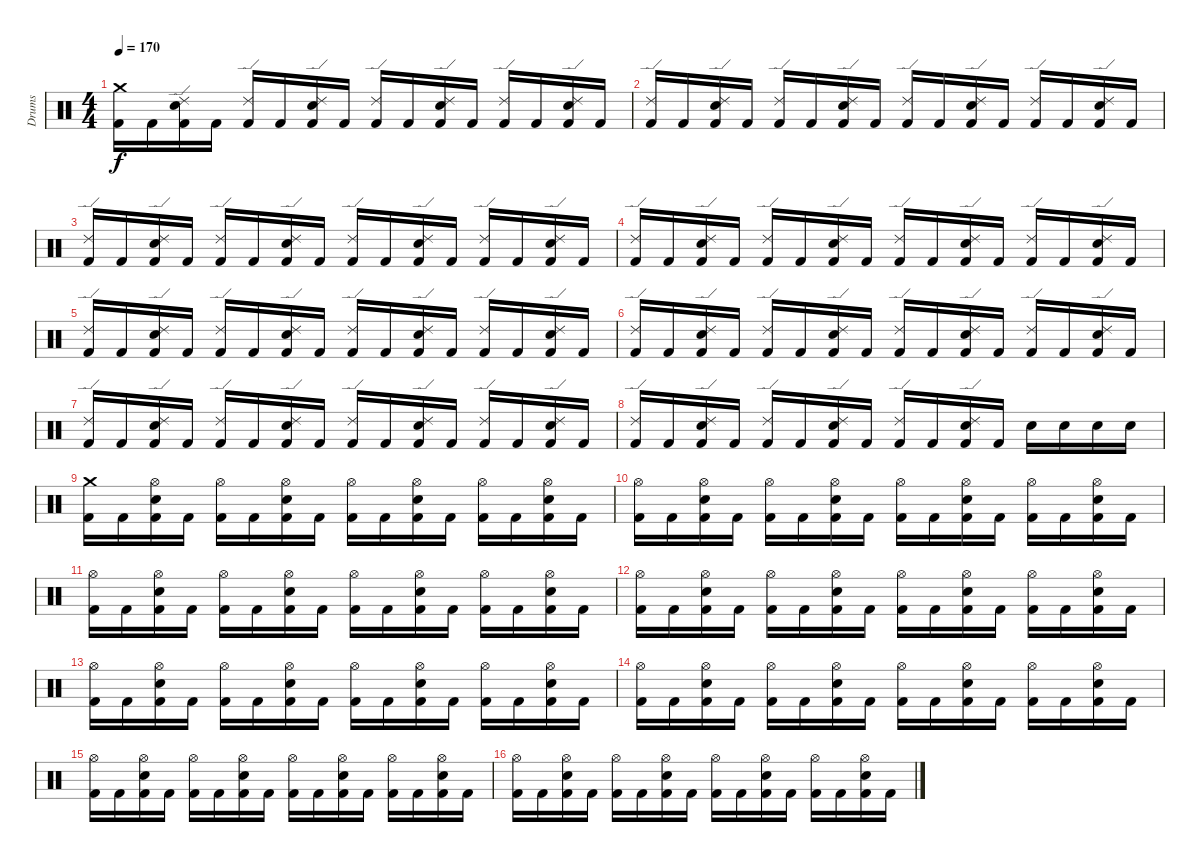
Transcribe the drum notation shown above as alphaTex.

\track ("Drums" "Drums") {instrument percussion}
\staff {score}
\articulation defaults
\ts (4 4)
\tempo 170
\clef neutral
\ks c
("Crash medium (hit)" "Kick (hit) 2").16{dy f} "Kick (hit) 2".16 ("Ride (edge) 2" "Snare (hit) 2" "Kick (hit) 2").16 "Kick (hit) 2".16 ("Ride (edge) 2" "Kick (hit) 2").16 "Kick (hit) 2".16 ("Ride (edge) 2" "Snare (hit) 2" "Kick (hit) 2").16 "Kick (hit) 2".16 ("Ride (edge) 2" "Kick (hit) 2").16 "Kick (hit) 2".16 ("Ride (edge) 2" "Snare (hit) 2" "Kick (hit) 2").16 "Kick (hit) 2".16 ("Ride (edge) 2" "Kick (hit) 2").16 "Kick (hit) 2".16 ("Ride (edge) 2" "Snare (hit) 2" "Kick (hit) 2").16 "Kick (hit) 2".16 |
("Ride (edge) 2" "Kick (hit) 2").16 "Kick (hit) 2".16 ("Ride (edge) 2" "Snare (hit) 2" "Kick (hit) 2").16 "Kick (hit) 2".16 ("Ride (edge) 2" "Kick (hit) 2").16 "Kick (hit) 2".16 ("Ride (edge) 2" "Snare (hit) 2" "Kick (hit) 2").16 "Kick (hit) 2".16 ("Ride (edge) 2" "Kick (hit) 2").16 "Kick (hit) 2".16 ("Ride (edge) 2" "Snare (hit) 2" "Kick (hit) 2").16 "Kick (hit) 2".16 ("Ride (edge) 2" "Kick (hit) 2").16 "Kick (hit) 2".16 ("Ride (edge) 2" "Snare (hit) 2" "Kick (hit) 2").16 "Kick (hit) 2".16 |
("Ride (edge) 2" "Kick (hit) 2").16 "Kick (hit) 2".16 ("Ride (edge) 2" "Snare (hit) 2" "Kick (hit) 2").16 "Kick (hit) 2".16 ("Ride (edge) 2" "Kick (hit) 2").16 "Kick (hit) 2".16 ("Ride (edge) 2" "Snare (hit) 2" "Kick (hit) 2").16 "Kick (hit) 2".16 ("Ride (edge) 2" "Kick (hit) 2").16 "Kick (hit) 2".16 ("Ride (edge) 2" "Snare (hit) 2" "Kick (hit) 2").16 "Kick (hit) 2".16 ("Ride (edge) 2" "Kick (hit) 2").16 "Kick (hit) 2".16 ("Ride (edge) 2" "Snare (hit) 2" "Kick (hit) 2").16 "Kick (hit) 2".16 |
("Ride (edge) 2" "Kick (hit) 2").16 "Kick (hit) 2".16 ("Ride (edge) 2" "Snare (hit) 2" "Kick (hit) 2").16 "Kick (hit) 2".16 ("Ride (edge) 2" "Kick (hit) 2").16 "Kick (hit) 2".16 ("Ride (edge) 2" "Snare (hit) 2" "Kick (hit) 2").16 "Kick (hit) 2".16 ("Ride (edge) 2" "Kick (hit) 2").16 "Kick (hit) 2".16 ("Ride (edge) 2" "Snare (hit) 2" "Kick (hit) 2").16 "Kick (hit) 2".16 ("Ride (edge) 2" "Kick (hit) 2").16 "Kick (hit) 2".16 ("Ride (edge) 2" "Snare (hit) 2" "Kick (hit) 2").16 "Kick (hit) 2".16 |
("Ride (edge) 2" "Kick (hit) 2").16 "Kick (hit) 2".16 ("Ride (edge) 2" "Snare (hit) 2" "Kick (hit) 2").16 "Kick (hit) 2".16 ("Ride (edge) 2" "Kick (hit) 2").16 "Kick (hit) 2".16 ("Ride (edge) 2" "Snare (hit) 2" "Kick (hit) 2").16 "Kick (hit) 2".16 ("Ride (edge) 2" "Kick (hit) 2").16 "Kick (hit) 2".16 ("Ride (edge) 2" "Snare (hit) 2" "Kick (hit) 2").16 "Kick (hit) 2".16 ("Ride (edge) 2" "Kick (hit) 2").16 "Kick (hit) 2".16 ("Ride (edge) 2" "Snare (hit) 2" "Kick (hit) 2").16 "Kick (hit) 2".16 |
("Ride (edge) 2" "Kick (hit) 2").16 "Kick (hit) 2".16 ("Ride (edge) 2" "Snare (hit) 2" "Kick (hit) 2").16 "Kick (hit) 2".16 ("Ride (edge) 2" "Kick (hit) 2").16 "Kick (hit) 2".16 ("Ride (edge) 2" "Snare (hit) 2" "Kick (hit) 2").16 "Kick (hit) 2".16 ("Ride (edge) 2" "Kick (hit) 2").16 "Kick (hit) 2".16 ("Ride (edge) 2" "Snare (hit) 2" "Kick (hit) 2").16 "Kick (hit) 2".16 ("Ride (edge) 2" "Kick (hit) 2").16 "Kick (hit) 2".16 ("Ride (edge) 2" "Snare (hit) 2" "Kick (hit) 2").16 "Kick (hit) 2".16 |
("Ride (edge) 2" "Kick (hit) 2").16 "Kick (hit) 2".16 ("Ride (edge) 2" "Snare (hit) 2" "Kick (hit) 2").16 "Kick (hit) 2".16 ("Ride (edge) 2" "Kick (hit) 2").16 "Kick (hit) 2".16 ("Ride (edge) 2" "Snare (hit) 2" "Kick (hit) 2").16 "Kick (hit) 2".16 ("Ride (edge) 2" "Kick (hit) 2").16 "Kick (hit) 2".16 ("Ride (edge) 2" "Snare (hit) 2" "Kick (hit) 2").16 "Kick (hit) 2".16 ("Ride (edge) 2" "Kick (hit) 2").16 "Kick (hit) 2".16 ("Ride (edge) 2" "Snare (hit) 2" "Kick (hit) 2").16 "Kick (hit) 2".16 |
("Ride (edge) 2" "Kick (hit) 2").16 "Kick (hit) 2".16 ("Ride (edge) 2" "Snare (hit) 2" "Kick (hit) 2").16 "Kick (hit) 2".16 ("Ride (edge) 2" "Kick (hit) 2").16 "Kick (hit) 2".16 ("Ride (edge) 2" "Snare (hit) 2" "Kick (hit) 2").16 "Kick (hit) 2".16 ("Ride (edge) 2" "Kick (hit) 2").16 "Kick (hit) 2".16 ("Ride (edge) 2" "Snare (hit) 2" "Kick (hit) 2").16 "Kick (hit) 2".16 "Snare (hit) 2".16 "Snare (hit) 2".16 "Snare (hit) 2".16 "Snare (hit) 2".16 |
("Crash medium (hit)" "Kick (hit) 2").16 "Kick (hit) 2".16 ("Hi-Hat (open)" "Snare (hit) 2" "Kick (hit) 2").16 "Kick (hit) 2".16 ("Hi-Hat (open)" "Kick (hit) 2").16 "Kick (hit) 2".16 ("Hi-Hat (open)" "Snare (hit) 2" "Kick (hit) 2").16 "Kick (hit) 2".16 ("Hi-Hat (open)" "Kick (hit) 2").16 "Kick (hit) 2".16 ("Hi-Hat (open)" "Snare (hit) 2" "Kick (hit) 2").16 "Kick (hit) 2".16 ("Hi-Hat (open)" "Kick (hit) 2").16 "Kick (hit) 2".16 ("Hi-Hat (open)" "Snare (hit) 2" "Kick (hit) 2").16 "Kick (hit) 2".16 |
("Hi-Hat (open)" "Kick (hit) 2").16 "Kick (hit) 2".16 ("Hi-Hat (open)" "Snare (hit) 2" "Kick (hit) 2").16 "Kick (hit) 2".16 ("Hi-Hat (open)" "Kick (hit) 2").16 "Kick (hit) 2".16 ("Hi-Hat (open)" "Snare (hit) 2" "Kick (hit) 2").16 "Kick (hit) 2".16 ("Hi-Hat (open)" "Kick (hit) 2").16 "Kick (hit) 2".16 ("Hi-Hat (open)" "Snare (hit) 2" "Kick (hit) 2").16 "Kick (hit) 2".16 ("Hi-Hat (open)" "Kick (hit) 2").16 "Kick (hit) 2".16 ("Hi-Hat (open)" "Snare (hit) 2" "Kick (hit) 2").16 "Kick (hit) 2".16 |
("Hi-Hat (open)" "Kick (hit) 2").16 "Kick (hit) 2".16 ("Hi-Hat (open)" "Snare (hit) 2" "Kick (hit) 2").16 "Kick (hit) 2".16 ("Hi-Hat (open)" "Kick (hit) 2").16 "Kick (hit) 2".16 ("Hi-Hat (open)" "Snare (hit) 2" "Kick (hit) 2").16 "Kick (hit) 2".16 ("Hi-Hat (open)" "Kick (hit) 2").16 "Kick (hit) 2".16 ("Hi-Hat (open)" "Snare (hit) 2" "Kick (hit) 2").16 "Kick (hit) 2".16 ("Hi-Hat (open)" "Kick (hit) 2").16 "Kick (hit) 2".16 ("Hi-Hat (open)" "Snare (hit) 2" "Kick (hit) 2").16 "Kick (hit) 2".16 |
("Hi-Hat (open)" "Kick (hit) 2").16 "Kick (hit) 2".16 ("Hi-Hat (open)" "Snare (hit) 2" "Kick (hit) 2").16 "Kick (hit) 2".16 ("Hi-Hat (open)" "Kick (hit) 2").16 "Kick (hit) 2".16 ("Hi-Hat (open)" "Snare (hit) 2" "Kick (hit) 2").16 "Kick (hit) 2".16 ("Hi-Hat (open)" "Kick (hit) 2").16 "Kick (hit) 2".16 ("Hi-Hat (open)" "Snare (hit) 2" "Kick (hit) 2").16 "Kick (hit) 2".16 ("Hi-Hat (open)" "Kick (hit) 2").16 "Kick (hit) 2".16 ("Hi-Hat (open)" "Snare (hit) 2" "Kick (hit) 2").16 "Kick (hit) 2".16 |
("Hi-Hat (open)" "Kick (hit) 2").16 "Kick (hit) 2".16 ("Hi-Hat (open)" "Snare (hit) 2" "Kick (hit) 2").16 "Kick (hit) 2".16 ("Hi-Hat (open)" "Kick (hit) 2").16 "Kick (hit) 2".16 ("Hi-Hat (open)" "Snare (hit) 2" "Kick (hit) 2").16 "Kick (hit) 2".16 ("Hi-Hat (open)" "Kick (hit) 2").16 "Kick (hit) 2".16 ("Hi-Hat (open)" "Snare (hit) 2" "Kick (hit) 2").16 "Kick (hit) 2".16 ("Hi-Hat (open)" "Kick (hit) 2").16 "Kick (hit) 2".16 ("Hi-Hat (open)" "Snare (hit) 2" "Kick (hit) 2").16 "Kick (hit) 2".16 |
("Hi-Hat (open)" "Kick (hit) 2").16 "Kick (hit) 2".16 ("Hi-Hat (open)" "Snare (hit) 2" "Kick (hit) 2").16 "Kick (hit) 2".16 ("Hi-Hat (open)" "Kick (hit) 2").16 "Kick (hit) 2".16 ("Hi-Hat (open)" "Snare (hit) 2" "Kick (hit) 2").16 "Kick (hit) 2".16 ("Hi-Hat (open)" "Kick (hit) 2").16 "Kick (hit) 2".16 ("Hi-Hat (open)" "Snare (hit) 2" "Kick (hit) 2").16 "Kick (hit) 2".16 ("Hi-Hat (open)" "Kick (hit) 2").16 "Kick (hit) 2".16 ("Hi-Hat (open)" "Snare (hit) 2" "Kick (hit) 2").16 "Kick (hit) 2".16 |
("Hi-Hat (open)" "Kick (hit) 2").16 "Kick (hit) 2".16 ("Hi-Hat (open)" "Snare (hit) 2" "Kick (hit) 2").16 "Kick (hit) 2".16 ("Hi-Hat (open)" "Kick (hit) 2").16 "Kick (hit) 2".16 ("Hi-Hat (open)" "Snare (hit) 2" "Kick (hit) 2").16 "Kick (hit) 2".16 ("Hi-Hat (open)" "Kick (hit) 2").16 "Kick (hit) 2".16 ("Hi-Hat (open)" "Snare (hit) 2" "Kick (hit) 2").16 "Kick (hit) 2".16 ("Hi-Hat (open)" "Kick (hit) 2").16 "Kick (hit) 2".16 ("Hi-Hat (open)" "Snare (hit) 2" "Kick (hit) 2").16 "Kick (hit) 2".16 |
("Hi-Hat (open)" "Kick (hit) 2").16 "Kick (hit) 2".16 ("Hi-Hat (open)" "Snare (hit) 2" "Kick (hit) 2").16 "Kick (hit) 2".16 ("Hi-Hat (open)" "Kick (hit) 2").16 "Kick (hit) 2".16 ("Hi-Hat (open)" "Snare (hit) 2" "Kick (hit) 2").16 "Kick (hit) 2".16 ("Hi-Hat (open)" "Kick (hit) 2").16 "Kick (hit) 2".16 ("Hi-Hat (open)" "Snare (hit) 2" "Kick (hit) 2").16 "Kick (hit) 2".16 ("Hi-Hat (open)" "Kick (hit) 2").16 "Kick (hit) 2".16 ("Hi-Hat (open)" "Snare (hit) 2" "Kick (hit) 2").16 "Kick (hit) 2".16
